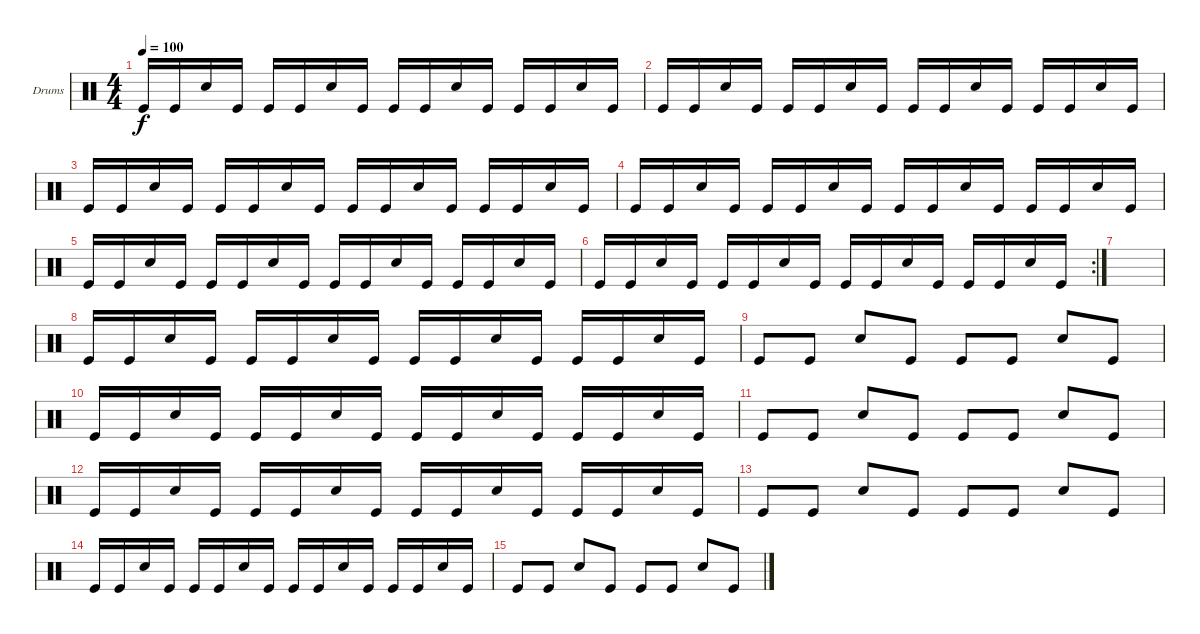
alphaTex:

\defaultSystemsLayout 4
\bracketExtendMode groupsimilarinstruments
\firstSystemTrackNameOrientation horizontal
\otherSystemsTrackNameOrientation horizontal
\track ("Drumkit" "Drums") {instrument percussion}
\staff {score}
\articulation defaults
\ts (4 4)
\tempo 100
\clef neutral
\ks c "Kick (hit)".16{dy f} "Kick (hit)".16 "Snare (hit) 2".16 "Kick (hit)".16 "Kick (hit)".16 "Kick (hit)".16 "Snare (hit) 2".16 "Kick (hit)".16 "Kick (hit)".16 "Kick (hit)".16 "Snare (hit) 2".16 "Kick (hit)".16 "Kick (hit)".16 "Kick (hit)".16 "Snare (hit) 2".16 "Kick (hit)".16
|
"Kick (hit)".16 "Kick (hit)".16 "Snare (hit) 2".16 "Kick (hit)".16 "Kick (hit)".16 "Kick (hit)".16 "Snare (hit) 2".16 "Kick (hit)".16 "Kick (hit)".16 "Kick (hit)".16 "Snare (hit) 2".16 "Kick (hit)".16 "Kick (hit)".16 "Kick (hit)".16 "Snare (hit) 2".16 "Kick (hit)".16 |
"Kick (hit)".16 "Kick (hit)".16 "Snare (hit) 2".16 "Kick (hit)".16 "Kick (hit)".16 "Kick (hit)".16 "Snare (hit) 2".16 "Kick (hit)".16 "Kick (hit)".16 "Kick (hit)".16 "Snare (hit) 2".16 "Kick (hit)".16 "Kick (hit)".16 "Kick (hit)".16 "Snare (hit) 2".16 "Kick (hit)".16 |
"Kick (hit)".16 "Kick (hit)".16 "Snare (hit) 2".16 "Kick (hit)".16 "Kick (hit)".16 "Kick (hit)".16 "Snare (hit) 2".16 "Kick (hit)".16 "Kick (hit)".16 "Kick (hit)".16 "Snare (hit) 2".16 "Kick (hit)".16 "Kick (hit)".16 "Kick (hit)".16 "Snare (hit) 2".16 "Kick (hit)".16 |
"Kick (hit)".16 "Kick (hit)".16 "Snare (hit) 2".16 "Kick (hit)".16 "Kick (hit)".16 "Kick (hit)".16 "Snare (hit) 2".16 "Kick (hit)".16 "Kick (hit)".16 "Kick (hit)".16 "Snare (hit) 2".16 "Kick (hit)".16 "Kick (hit)".16 "Kick (hit)".16 "Snare (hit) 2".16 "Kick (hit)".16 |
\rc 2 "Kick (hit)".16 "Kick (hit)".16 "Snare (hit) 2".16 "Kick (hit)".16 "Kick (hit)".16 "Kick (hit)".16 "Snare (hit) 2".16 "Kick (hit)".16 "Kick (hit)".16 "Kick (hit)".16 "Snare (hit) 2".16 "Kick (hit)".16 "Kick (hit)".16 "Kick (hit)".16 "Snare (hit) 2".16 "Kick (hit)".16
|
|
"Kick (hit)".16 "Kick (hit)".16 "Snare (hit) 2".16 "Kick (hit)".16 "Kick (hit)".16 "Kick (hit)".16 "Snare (hit) 2".16 "Kick (hit)".16 "Kick (hit)".16 "Kick (hit)".16 "Snare (hit) 2".16 "Kick (hit)".16 "Kick (hit)".16 "Kick (hit)".16 "Snare (hit) 2".16 "Kick (hit)".16 |
"Kick (hit)".8 "Kick (hit)".8 "Snare (hit) 2".8 "Kick (hit)".8 "Kick (hit)".8 "Kick (hit)".8 "Snare (hit) 2".8 "Kick (hit)".8 |
"Kick (hit)".16 "Kick (hit)".16 "Snare (hit) 2".16 "Kick (hit)".16 "Kick (hit)".16 "Kick (hit)".16 "Snare (hit) 2".16 "Kick (hit)".16 "Kick (hit)".16 "Kick (hit)".16 "Snare (hit) 2".16 "Kick (hit)".16 "Kick (hit)".16 "Kick (hit)".16 "Snare (hit) 2".16 "Kick (hit)".16 |
"Kick (hit)".8 "Kick (hit)".8 "Snare (hit) 2".8 "Kick (hit)".8 "Kick (hit)".8 "Kick (hit)".8 "Snare (hit) 2".8 "Kick (hit)".8 |
"Kick (hit)".16 "Kick (hit)".16 "Snare (hit) 2".16 "Kick (hit)".16 "Kick (hit)".16 "Kick (hit)".16 "Snare (hit) 2".16 "Kick (hit)".16 "Kick (hit)".16 "Kick (hit)".16 "Snare (hit) 2".16 "Kick (hit)".16 "Kick (hit)".16 "Kick (hit)".16 "Snare (hit) 2".16 "Kick (hit)".16 |
"Kick (hit)".8 "Kick (hit)".8 "Snare (hit) 2".8 "Kick (hit)".8 "Kick (hit)".8 "Kick (hit)".8 "Snare (hit) 2".8 "Kick (hit)".8 |
"Kick (hit)".16 "Kick (hit)".16 "Snare (hit) 2".16 "Kick (hit)".16 "Kick (hit)".16 "Kick (hit)".16 "Snare (hit) 2".16 "Kick (hit)".16 "Kick (hit)".16 "Kick (hit)".16 "Snare (hit) 2".16 "Kick (hit)".16 "Kick (hit)".16 "Kick (hit)".16 "Snare (hit) 2".16 "Kick (hit)".16 |
"Kick (hit)".8 "Kick (hit)".8 "Snare (hit) 2".8 "Kick (hit)".8 "Kick (hit)".8 "Kick (hit)".8 "Snare (hit) 2".8 "Kick (hit)".8
